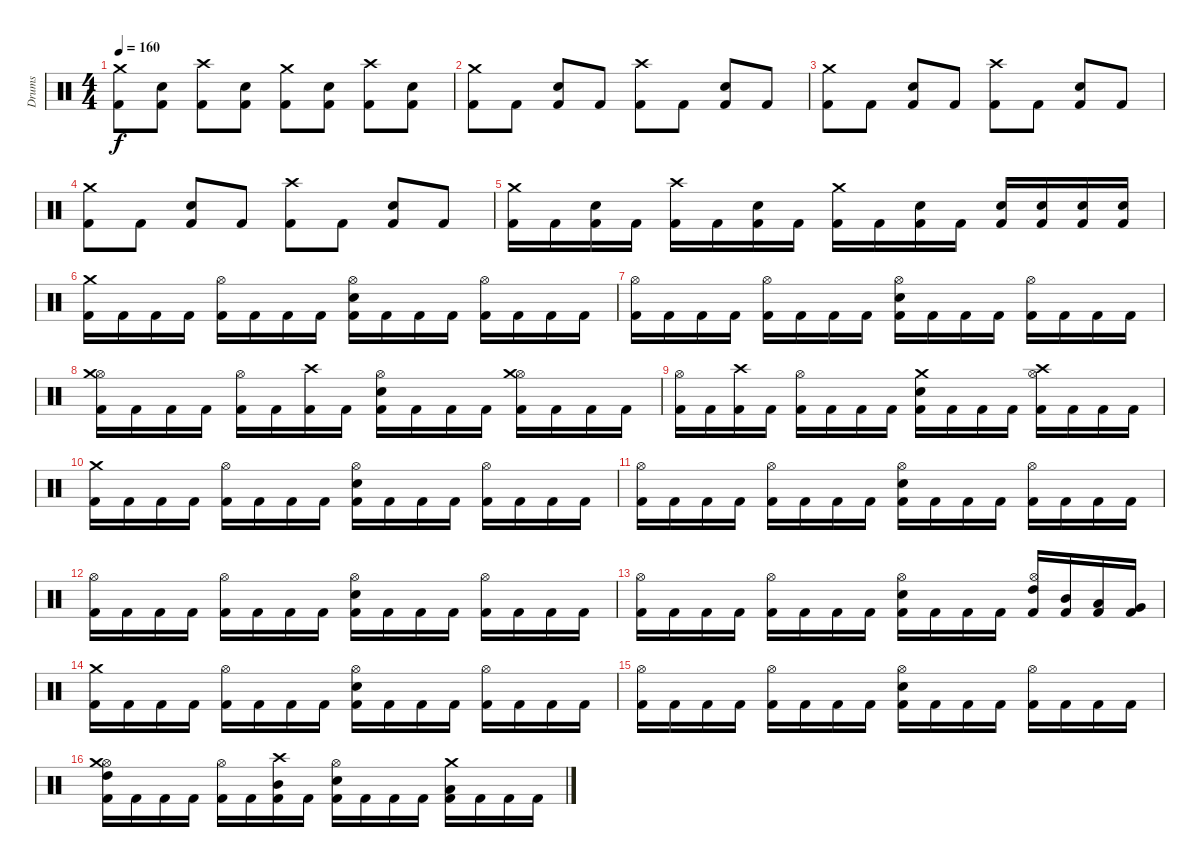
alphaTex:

\track ("Drums" "Drums") {instrument percussion}
\staff {score}
\articulation defaults
\ts (4 4)
\tempo 160
\clef neutral
\ks c
("Crash medium (hit)" "Kick (hit) 2").8{dy f} ("Kick (hit) 2" "Snare (hit) 2").8 ("Crash high (hit)" "Kick (hit) 2").8 ("Kick (hit) 2" "Snare (hit) 2").8 ("Crash medium (hit)" "Kick (hit) 2").8 ("Kick (hit) 2" "Snare (hit) 2").8 ("Crash high (hit)" "Kick (hit) 2").8 ("Kick (hit) 2" "Snare (hit) 2").8 |
("Crash medium (hit)" "Kick (hit) 2").8 "Kick (hit) 2".8 ("Kick (hit) 2" "Snare (hit) 2").8 "Kick (hit) 2".8 ("Crash high (hit)" "Kick (hit) 2").8 "Kick (hit) 2".8 ("Kick (hit) 2" "Snare (hit) 2").8 "Kick (hit) 2".8 |
("Crash medium (hit)" "Kick (hit) 2").8 "Kick (hit) 2".8 ("Kick (hit) 2" "Snare (hit) 2").8 "Kick (hit) 2".8 ("Crash high (hit)" "Kick (hit) 2").8 "Kick (hit) 2".8 ("Kick (hit) 2" "Snare (hit) 2").8 "Kick (hit) 2".8 |
("Crash medium (hit)" "Kick (hit) 2").8 "Kick (hit) 2".8 ("Kick (hit) 2" "Snare (hit) 2").8 "Kick (hit) 2".8 ("Crash high (hit)" "Kick (hit) 2").8 "Kick (hit) 2".8 ("Kick (hit) 2" "Snare (hit) 2").8 "Kick (hit) 2".8 |
("Crash medium (hit)" "Kick (hit) 2").16 "Kick (hit) 2".16 ("Kick (hit) 2" "Snare (hit) 2").16 "Kick (hit) 2".16 ("Crash high (hit)" "Kick (hit) 2").16 "Kick (hit) 2".16 ("Kick (hit) 2" "Snare (hit) 2").16 "Kick (hit) 2".16 ("Crash medium (hit)" "Kick (hit) 2").16 "Kick (hit) 2".16 ("Kick (hit) 2" "Snare (hit) 2").16 "Kick (hit) 2".16 ("Kick (hit) 2" "Snare (hit) 2").16 ("Kick (hit) 2" "Snare (hit) 2").16 ("Kick (hit) 2" "Snare (hit) 2").16 ("Kick (hit) 2" "Snare (hit) 2").16 |
("Crash medium (hit)" "Kick (hit) 2").16 "Kick (hit) 2".16 "Kick (hit) 2".16 "Kick (hit) 2".16 ("Hi-Hat (open)" "Kick (hit) 2").16 "Kick (hit) 2".16 "Kick (hit) 2".16 "Kick (hit) 2".16 ("Hi-Hat (open)" "Kick (hit) 2" "Snare (hit) 2").16 "Kick (hit) 2".16 "Kick (hit) 2".16 "Kick (hit) 2".16 ("Hi-Hat (open)" "Kick (hit) 2").16 "Kick (hit) 2".16 "Kick (hit) 2".16 "Kick (hit) 2".16 |
("Hi-Hat (open)" "Kick (hit) 2").16 "Kick (hit) 2".16 "Kick (hit) 2".16 "Kick (hit) 2".16 ("Hi-Hat (open)" "Kick (hit) 2").16 "Kick (hit) 2".16 "Kick (hit) 2".16 "Kick (hit) 2".16 ("Hi-Hat (open)" "Kick (hit) 2" "Snare (hit) 2").16 "Kick (hit) 2".16 "Kick (hit) 2".16 "Kick (hit) 2".16 ("Hi-Hat (open)" "Kick (hit) 2").16 "Kick (hit) 2".16 "Kick (hit) 2".16 "Kick (hit) 2".16 |
("Hi-Hat (open)" "Crash medium (hit)" "Kick (hit) 2").16 "Kick (hit) 2".16 "Kick (hit) 2".16 "Kick (hit) 2".16 ("Hi-Hat (open)" "Kick (hit) 2").16 "Kick (hit) 2".16 ("Crash high (hit)" "Kick (hit) 2").16 "Kick (hit) 2".16 ("Hi-Hat (open)" "Kick (hit) 2" "Snare (hit) 2").16 "Kick (hit) 2".16 "Kick (hit) 2".16 "Kick (hit) 2".16 ("Hi-Hat (open)" "Crash medium (hit)" "Kick (hit) 2").16 "Kick (hit) 2".16 "Kick (hit) 2".16 "Kick (hit) 2".16 |
("Hi-Hat (open)" "Kick (hit) 2").16 "Kick (hit) 2".16 ("Crash high (hit)" "Kick (hit) 2").16 "Kick (hit) 2".16 ("Hi-Hat (open)" "Kick (hit) 2").16 "Kick (hit) 2".16 "Kick (hit) 2".16 "Kick (hit) 2".16 ("Crash medium (hit)" "Kick (hit) 2" "Snare (hit) 2").16 "Kick (hit) 2".16 "Kick (hit) 2".16 "Kick (hit) 2".16 ("Hi-Hat (open)" "Crash high (hit)" "Kick (hit) 2").16 "Kick (hit) 2".16 "Kick (hit) 2".16 "Kick (hit) 2".16 |
("Crash medium (hit)" "Kick (hit) 2").16 "Kick (hit) 2".16 "Kick (hit) 2".16 "Kick (hit) 2".16 ("Hi-Hat (open)" "Kick (hit) 2").16 "Kick (hit) 2".16 "Kick (hit) 2".16 "Kick (hit) 2".16 ("Hi-Hat (open)" "Kick (hit) 2" "Snare (hit) 2").16 "Kick (hit) 2".16 "Kick (hit) 2".16 "Kick (hit) 2".16 ("Hi-Hat (open)" "Kick (hit) 2").16 "Kick (hit) 2".16 "Kick (hit) 2".16 "Kick (hit) 2".16 |
("Hi-Hat (open)" "Kick (hit) 2").16 "Kick (hit) 2".16 "Kick (hit) 2".16 "Kick (hit) 2".16 ("Hi-Hat (open)" "Kick (hit) 2").16 "Kick (hit) 2".16 "Kick (hit) 2".16 "Kick (hit) 2".16 ("Hi-Hat (open)" "Kick (hit) 2" "Snare (hit) 2").16 "Kick (hit) 2".16 "Kick (hit) 2".16 "Kick (hit) 2".16 ("Hi-Hat (open)" "Kick (hit) 2").16 "Kick (hit) 2".16 "Kick (hit) 2".16 "Kick (hit) 2".16 |
("Hi-Hat (open)" "Kick (hit) 2").16 "Kick (hit) 2".16 "Kick (hit) 2".16 "Kick (hit) 2".16 ("Hi-Hat (open)" "Kick (hit) 2").16 "Kick (hit) 2".16 "Kick (hit) 2".16 "Kick (hit) 2".16 ("Hi-Hat (open)" "Kick (hit) 2" "Snare (hit) 2").16 "Kick (hit) 2".16 "Kick (hit) 2".16 "Kick (hit) 2".16 ("Hi-Hat (open)" "Kick (hit) 2").16 "Kick (hit) 2".16 "Kick (hit) 2".16 "Kick (hit) 2".16 |
("Hi-Hat (open)" "Kick (hit) 2").16 "Kick (hit) 2".16 "Kick (hit) 2".16 "Kick (hit) 2".16 ("Hi-Hat (open)" "Kick (hit) 2").16 "Kick (hit) 2".16 "Kick (hit) 2".16 "Kick (hit) 2".16 ("Hi-Hat (open)" "Kick (hit) 2" "Snare (hit) 2").16 "Kick (hit) 2".16 "Kick (hit) 2".16 "Kick (hit) 2".16 ("Hi-Hat (open)" "Kick (hit) 2" "High Tom (hit)").16 ("Kick (hit) 2" "Mid Tom (hit)").16 ("Kick (hit) 2" "Low Tom (hit)").16 ("Kick (hit) 2" "Very Low Tom (hit)").16 |
("Crash medium (hit)" "Kick (hit) 2").16 "Kick (hit) 2".16 "Kick (hit) 2".16 "Kick (hit) 2".16 ("Hi-Hat (open)" "Kick (hit) 2").16 "Kick (hit) 2".16 "Kick (hit) 2".16 "Kick (hit) 2".16 ("Hi-Hat (open)" "Kick (hit) 2" "Snare (hit) 2").16 "Kick (hit) 2".16 "Kick (hit) 2".16 "Kick (hit) 2".16 ("Hi-Hat (open)" "Kick (hit) 2").16 "Kick (hit) 2".16 "Kick (hit) 2".16 "Kick (hit) 2".16 |
("Hi-Hat (open)" "Kick (hit) 2").16 "Kick (hit) 2".16 "Kick (hit) 2".16 "Kick (hit) 2".16 ("Hi-Hat (open)" "Kick (hit) 2").16 "Kick (hit) 2".16 "Kick (hit) 2".16 "Kick (hit) 2".16 ("Hi-Hat (open)" "Kick (hit) 2" "Snare (hit) 2").16 "Kick (hit) 2".16 "Kick (hit) 2".16 "Kick (hit) 2".16 ("Hi-Hat (open)" "Kick (hit) 2").16 "Kick (hit) 2".16 "Kick (hit) 2".16 "Kick (hit) 2".16 |
("Hi-Hat (open)" "Crash medium (hit)" "Kick (hit) 2" "High Tom (hit)").16 "Kick (hit) 2".16 "Kick (hit) 2".16 "Kick (hit) 2".16 ("Hi-Hat (open)" "Kick (hit) 2").16 "Kick (hit) 2".16 ("Crash high (hit)" "Kick (hit) 2" "Mid Tom (hit)").16 "Kick (hit) 2".16 ("Hi-Hat (open)" "Kick (hit) 2" "Snare (hit) 2").16 "Kick (hit) 2".16 "Kick (hit) 2".16 "Kick (hit) 2".16 ("Crash medium (hit)" "Kick (hit) 2" "Low Tom (hit)").16 "Kick (hit) 2".16 "Kick (hit) 2".16 "Kick (hit) 2".16
